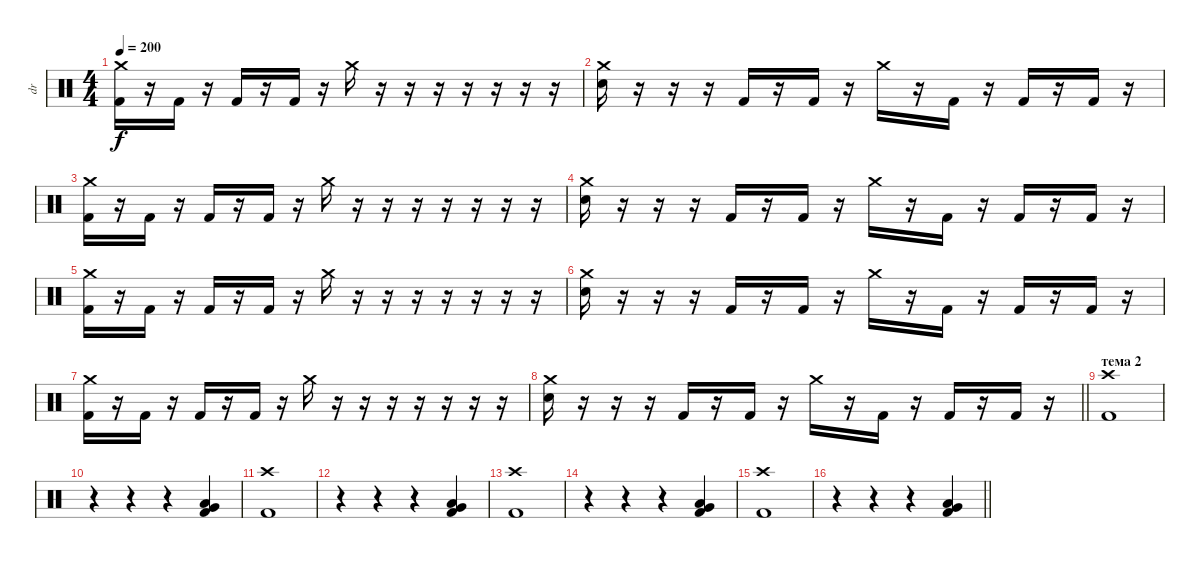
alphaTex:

\track ("dr" "dr") {instrument percussion}
\staff {score}
\articulation defaults
\ts (4 4)
\tempo 200
\clef neutral
\ks c
("Crash medium (hit)" "Kick (hit) 2").16{dy f} r.16 "Kick (hit) 2".16 r.16 "Kick (hit) 2".16 r.16 "Kick (hit) 2".16 r.16 "Crash medium (hit)".16 r.16 r.16 r.16 r.16 r.16 r.16 r.16 |
("Crash medium (hit)" "Electric Snare (hit)").16 r.16 r.16 r.16 "Kick (hit) 2".16 r.16 "Kick (hit) 2".16 r.16 "Crash medium (hit)".16 r.16 "Kick (hit) 2".16 r.16 "Kick (hit) 2".16 r.16 "Kick (hit) 2".16 r.16 |
("Crash medium (hit)" "Kick (hit) 2").16 r.16 "Kick (hit) 2".16 r.16 "Kick (hit) 2".16 r.16 "Kick (hit) 2".16 r.16 "Crash medium (hit)".16 r.16 r.16 r.16 r.16 r.16 r.16 r.16 |
("Crash medium (hit)" "Electric Snare (hit)").16 r.16 r.16 r.16 "Kick (hit) 2".16 r.16 "Kick (hit) 2".16 r.16 "Crash medium (hit)".16 r.16 "Kick (hit) 2".16 r.16 "Kick (hit) 2".16 r.16 "Kick (hit) 2".16 r.16 |
("Crash medium (hit)" "Kick (hit) 2").16 r.16 "Kick (hit) 2".16 r.16 "Kick (hit) 2".16 r.16 "Kick (hit) 2".16 r.16 "Crash medium (hit)".16 r.16 r.16 r.16 r.16 r.16 r.16 r.16 |
("Crash medium (hit)" "Electric Snare (hit)").16 r.16 r.16 r.16 "Kick (hit) 2".16 r.16 "Kick (hit) 2".16 r.16 "Crash medium (hit)".16 r.16 "Kick (hit) 2".16 r.16 "Kick (hit) 2".16 r.16 "Kick (hit) 2".16 r.16 |
("Crash medium (hit)" "Kick (hit) 2").16 r.16 "Kick (hit) 2".16 r.16 "Kick (hit) 2".16 r.16 "Kick (hit) 2".16 r.16 "Crash medium (hit)".16 r.16 r.16 r.16 r.16 r.16 r.16 r.16 |
\barLineRight lightlight
("Crash medium (hit)" "Electric Snare (hit)").16 r.16 r.16 r.16 "Kick (hit) 2".16 r.16 "Kick (hit) 2".16 r.16 "Crash medium (hit)".16 r.16 "Kick (hit) 2".16 r.16 "Kick (hit) 2".16 r.16 "Kick (hit) 2".16 r.16 |
\section ("" "тема 2")
("Crash high (hit)" "Kick (hit) 2").1 |
r.4 r.4 r.4 ("Low Floor Tom (hit)" "Kick (hit) 2" "Very Low Tom (hit)").4 |
("Crash high (hit)" "Kick (hit) 2").1 |
r.4 r.4 r.4 ("Low Floor Tom (hit)" "Kick (hit) 2" "Very Low Tom (hit)").4 |
("Crash high (hit)" "Kick (hit) 2").1 |
r.4 r.4 r.4 ("Low Floor Tom (hit)" "Kick (hit) 2" "Very Low Tom (hit)").4 |
("Crash high (hit)" "Kick (hit) 2").1 |
\barLineRight lightlight
r.4 r.4 r.4 ("Low Floor Tom (hit)" "Kick (hit) 2" "Very Low Tom (hit)").4
